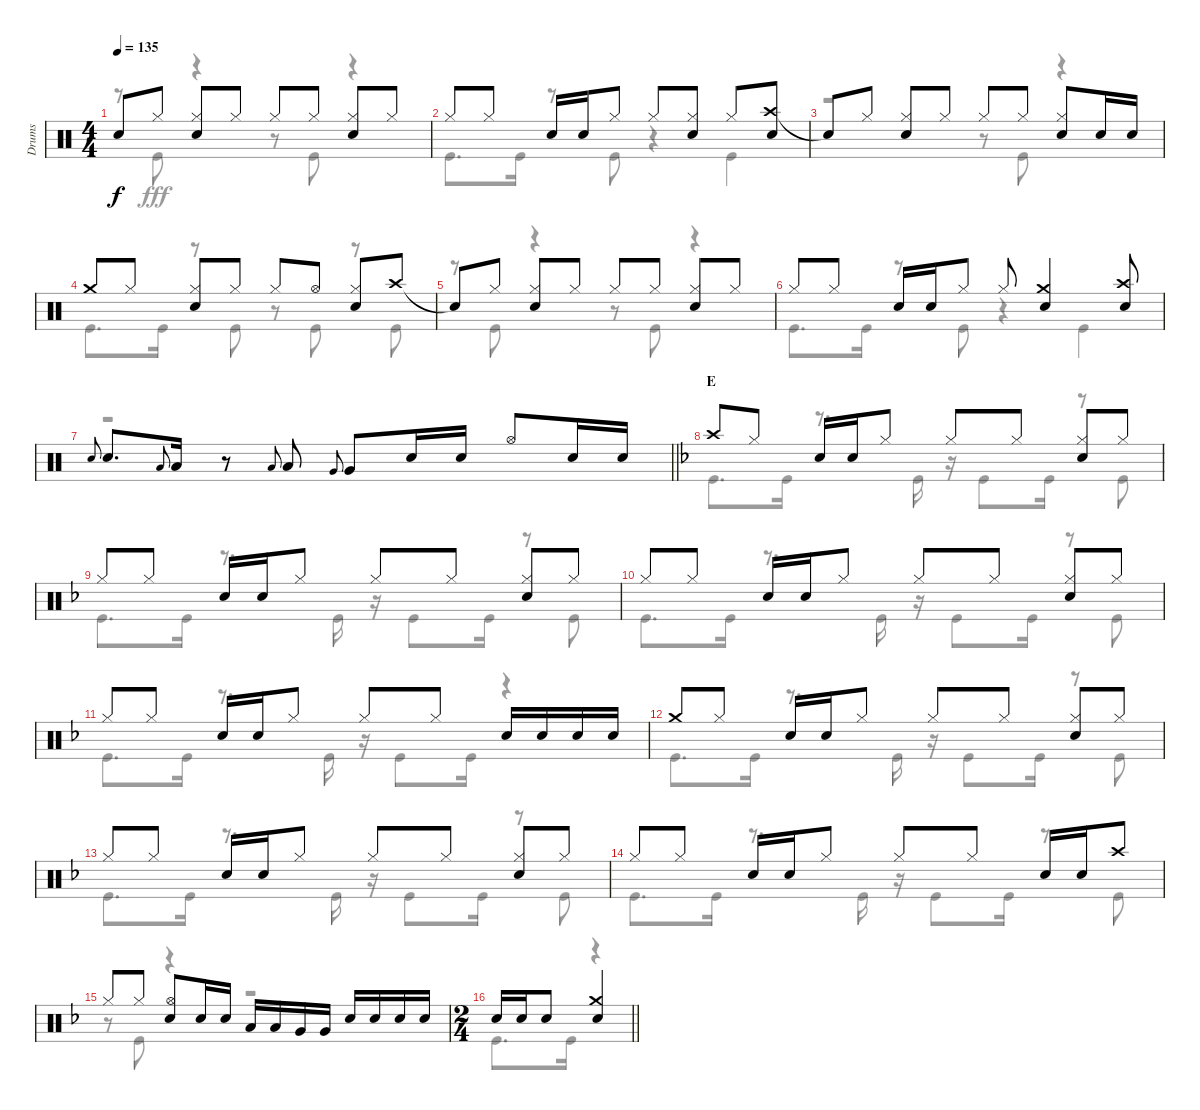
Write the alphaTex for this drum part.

\track ("Drums" "Drums") {instrument percussion}
\staff {score}
\articulation defaults
\voice
\ts (4 4)
\tempo 135
\clef neutral
\ks c "Snare (hit)"{t}.8{dy f} "Hi-Hat (closed)".8
("Hi-Hat (closed)" "Snare (hit) 2").8 "Hi-Hat (closed)".8 "Hi-Hat (closed)".8 "Hi-Hat (closed)".8 ("Hi-Hat (closed)" "Snare (hit) 2").8 "Hi-Hat (closed)".8 |
"Hi-Hat (closed)".8 "Hi-Hat (closed)".8 "Snare (hit) 2".16 "Snare (hit) 2".16 "Hi-Hat (closed)".8 "Hi-Hat (closed)".8 ("Hi-Hat (closed)" "Snare (hit) 2").8 "Hi-Hat (closed)".8 ("Crash high (hit)" "Snare (hit) 2").8 |
"Snare (hit)"{t}.8 "Hi-Hat (closed)".8 ("Hi-Hat (closed)" "Snare (hit) 2").8 "Hi-Hat (closed)".8 "Hi-Hat (closed)".8 "Hi-Hat (closed)".8 ("Hi-Hat (closed)" "Snare (hit) 2").8 "Snare (hit) 2".16 "Snare (hit) 2".16 |
"Crash medium (hit)".8 "Hi-Hat (closed)".8 ("Hi-Hat (closed)" "Snare (hit) 2").8 "Hi-Hat (closed)".8 "Hi-Hat (closed)".8 "Hi-Hat (open)".8 ("Hi-Hat (closed)" "Snare (hit) 2").8 "Crash high (hit)".8 |
"Snare (hit)"{t}.8 "Hi-Hat (closed)".8 ("Hi-Hat (closed)" "Snare (hit) 2").8 "Hi-Hat (closed)".8 "Hi-Hat (closed)".8 "Hi-Hat (closed)".8 ("Hi-Hat (closed)" "Snare (hit) 2").8 "Hi-Hat (closed)".8 |
"Hi-Hat (closed)".8 "Hi-Hat (closed)".8 "Snare (hit) 2".16 "Snare (hit) 2".16 "Hi-Hat (closed)".8 "Hi-Hat (closed)".8 ("Crash medium (hit)" "Snare (hit) 2").4 ("Crash high (hit)" "Snare (hit) 2").8 |
\barLineRight lightlight "Snare (hit) 2".8{gr onbeat} "Snare (hit) 2".8{d} "Low Tom (hit)".8{gr onbeat} "Low Tom (hit)".16
r.8 "Low Tom (hit)".8{gr onbeat} "Low Tom (hit)".8 "Very Low Tom (hit)".8{gr onbeat} "Very Low Tom (hit)".8 "Snare (hit) 2".16 "Snare (hit) 2".16 "Hi-Hat (open)".8 "Snare (hit) 2".16 "Snare (hit) 2".16 |
\section ("" "E")
\ks f "Crash high (hit)".8 "Hi-Hat (closed)".8 "Snare (hit) 2".16 "Snare (hit) 2".16 "Hi-Hat (closed)".8 "Hi-Hat (closed)".8 "Hi-Hat (closed)".8
("Hi-Hat (closed)" "Snare (hit) 2").8 "Hi-Hat (closed)".8 |
"Hi-Hat (closed)".8 "Hi-Hat (closed)".8 "Snare (hit) 2".16 "Snare (hit) 2".16 "Hi-Hat (closed)".8 "Hi-Hat (closed)".8 "Hi-Hat (closed)".8 ("Hi-Hat (closed)" "Snare (hit) 2").8 "Hi-Hat (closed)".8 |
"Hi-Hat (closed)".8 "Hi-Hat (closed)".8 "Snare (hit) 2".16 "Snare (hit) 2".16 "Hi-Hat (closed)".8 "Hi-Hat (closed)".8 "Hi-Hat (closed)".8 ("Hi-Hat (closed)" "Snare (hit) 2").8 "Hi-Hat (closed)".8 |
"Hi-Hat (closed)".8 "Hi-Hat (closed)".8 "Snare (hit) 2".16 "Snare (hit) 2".16 "Hi-Hat (closed)".8 "Hi-Hat (closed)".8 "Hi-Hat (closed)".8 "Snare (hit) 2".16 "Snare (hit) 2".16 "Snare (hit) 2".16 "Snare (hit) 2".16 |
"Crash medium (hit)".8 "Hi-Hat (closed)".8 "Snare (hit) 2".16 "Snare (hit) 2".16 "Hi-Hat (closed)".8 "Hi-Hat (closed)".8 "Hi-Hat (closed)".8 ("Hi-Hat (closed)" "Snare (hit) 2").8 "Hi-Hat (closed)".8 |
"Hi-Hat (closed)".8 "Hi-Hat (closed)".8 "Snare (hit) 2".16 "Snare (hit) 2".16 "Hi-Hat (closed)".8 "Hi-Hat (closed)".8 "Hi-Hat (closed)".8 ("Hi-Hat (closed)" "Snare (hit) 2").8 "Hi-Hat (closed)".8 |
"Hi-Hat (closed)".8 "Hi-Hat (closed)".8 "Snare (hit) 2".16 "Snare (hit) 2".16 "Hi-Hat (closed)".8 "Hi-Hat (closed)".8 "Hi-Hat (closed)".8 "Snare (hit) 2".16 "Snare (hit) 2".16 "Crash high (hit)".8 |
"Hi-Hat (closed)".8 "Hi-Hat (closed)".8 ("Hi-Hat (open)" "Snare (hit) 2").8 "Snare (hit) 2".16 "Snare (hit) 2".16 "Low Tom (hit)".16 "Low Tom (hit)".16 "Very Low Tom (hit)".16 "Very Low Tom (hit)".16 "Snare (hit) 2".16 "Snare (hit) 2".16 "Snare (hit) 2".16 "Snare (hit) 2".16 |
\ts (2 4)
\barLineRight lightlight "Snare (hit) 2".16 "Snare (hit) 2".16 "Snare (hit) 2".8
("Crash medium (hit)" "Snare (hit) 2").4
\voice
\clef neutral
\ottava regular
\simile none
\ks c
r.8{dy fff} "Kick (hit)".8 r.4 r.8 "Kick (hit)".8 r.4 |
"Kick (hit)".8{d} "Kick (hit)".16 r.8 "Kick (hit)".8 r.4 "Kick (hit)".4 |
r.2 r.8 "Kick (hit)".8 r.4 |
"Kick (hit)".8{d} "Kick (hit)".16 r.8 "Kick (hit)".8 r.8 "Kick (hit)".8 r.8 "Kick (hit)".8 |
r.8 "Kick (hit)".8 r.4 r.8 "Kick (hit)".8 r.4 |
"Kick (hit)".8{d} "Kick (hit)".16 r.8 "Kick (hit)".8 r.4 "Kick (hit)".4 |
\barLineRight lightlight
r.1 |
\ks f "Kick (hit)".8{d} "Kick (hit)".16
r.8{d} "Kick (hit)".16 r.16 "Kick (hit)".8 "Kick (hit)".16 r.8 "Kick (hit)".8 |
"Kick (hit)".8{d} "Kick (hit)".16 r.8{d} "Kick (hit)".16 r.16 "Kick (hit)".8 "Kick (hit)".16 r.8 "Kick (hit)".8 |
"Kick (hit)".8{d} "Kick (hit)".16 r.8{d} "Kick (hit)".16 r.16 "Kick (hit)".8 "Kick (hit)".16 r.8 "Kick (hit)".8 |
"Kick (hit)".8{d} "Kick (hit)".16 r.8{d} "Kick (hit)".16 r.16 "Kick (hit)".8 "Kick (hit)".16 r.4 |
"Kick (hit)".8{d} "Kick (hit)".16 r.8{d} "Kick (hit)".16 r.16 "Kick (hit)".8 "Kick (hit)".16 r.8 "Kick (hit)".8 |
"Kick (hit)".8{d} "Kick (hit)".16 r.8{d} "Kick (hit)".16 r.16 "Kick (hit)".8 "Kick (hit)".16 r.8 "Kick (hit)".8 |
"Kick (hit)".8{d} "Kick (hit)".16 r.8{d} "Kick (hit)".16 r.16 "Kick (hit)".8 "Kick (hit)".16 r.8 "Kick (hit)".8 |
r.8 "Kick (hit)".8 r.4 r.2 |
\barLineRight lightlight "Kick (hit)".8{d} "Kick (hit)".16
r.4
